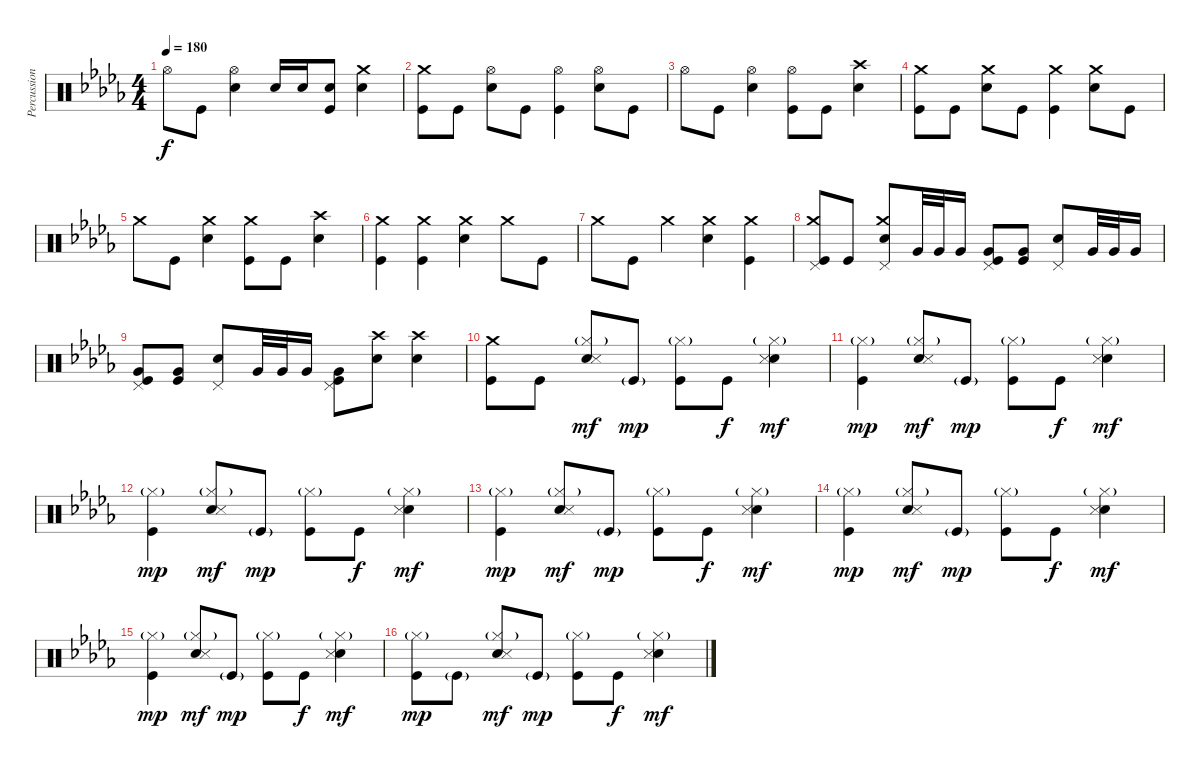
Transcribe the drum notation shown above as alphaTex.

\track ("Percussion" "Percussion") {instrument percussion}
\staff {score}
\articulation defaults
\ts (4 4)
\tempo 180
\clef neutral
\ks db "Hi-Hat (open)".8{dy f} "Kick (hit)".8
("Hi-Hat (open)" "Electric Snare (hit)").4 "Electric Snare (hit)".16 "Electric Snare (hit)".16 ("Electric Snare (hit)" "Kick (hit)").8 ("Crash medium (hit)" "Electric Snare (hit)").4 |
("Crash medium (hit)" "Kick (hit)").8 "Kick (hit)".8 ("Hi-Hat (open)" "Electric Snare (hit)").8 "Kick (hit)".8 ("Hi-Hat (open)" "Kick (hit)").4 ("Hi-Hat (open)" "Electric Snare (hit)").8 "Kick (hit)".8 |
"Hi-Hat (open)".8 "Kick (hit)".8 ("Hi-Hat (open)" "Electric Snare (hit)").4 ("Hi-Hat (open)" "Kick (hit)").8 "Kick (hit)".8 ("Crash high (hit)" "Electric Snare (hit)").4 |
("Crash medium (hit)" "Kick (hit)").8 "Kick (hit)".8 ("Crash medium (hit)" "Electric Snare (hit)").8 "Kick (hit)".8 ("Crash medium (hit)" "Kick (hit)").4 ("Crash medium (hit)" "Electric Snare (hit)").8 "Kick (hit)".8 |
"Crash medium (hit)".8 "Kick (hit)".8 ("Crash medium (hit)" "Electric Snare (hit)").4 ("Crash medium (hit)" "Kick (hit)").8 "Kick (hit)".8 ("Crash high (hit)" "Electric Snare (hit)").4 |
("Crash medium (hit)" "Kick (hit)").4 ("Crash medium (hit)" "Kick (hit)").4 ("Crash medium (hit)" "Electric Snare (hit)").4 "Crash medium (hit)".8 "Kick (hit)".8 |
"Crash medium (hit)".8 "Kick (hit)".8 "Crash medium (hit)".4 ("Crash medium (hit)" "Electric Snare (hit)").4 ("Crash medium (hit)" "Kick (hit)").4 |
("Crash medium (hit)" "Pedal Hi-Hat (hit)" "Kick (hit)").8 "Kick (hit)".8 ("Crash medium (hit)" "Electric Snare (hit)" "Pedal Hi-Hat (hit)").8 "Very Low Tom (hit)".32 "Very Low Tom (hit)".32 "Very Low Tom (hit)".16 ("Very Low Tom (hit)" "Pedal Hi-Hat (hit)" "Kick (hit)").8 ("Very Low Tom (hit)" "Kick (hit)").8 ("Electric Snare (hit)" "Pedal Hi-Hat (hit)").8 "Very Low Tom (hit)".32 "Very Low Tom (hit)".32 "Very Low Tom (hit)".16 |
("Very Low Tom (hit)" "Pedal Hi-Hat (hit)" "Kick (hit)").8 ("Very Low Tom (hit)" "Kick (hit)").8 ("Electric Snare (hit)" "Pedal Hi-Hat (hit)").8 "Very Low Tom (hit)".32 "Very Low Tom (hit)".32 "Very Low Tom (hit)".16 ("Very Low Tom (hit)" "Pedal Hi-Hat (hit)" "Kick (hit)").8 ("Crash high (hit)" "Electric Snare (hit)").8 ("Crash high (hit)" "Electric Snare (hit)").4 |
("Crash medium (hit)" "Kick (hit)").8 "Kick (hit)".8 ("Hi-Hat (closed)"{g} "Electric Snare (hit)" "Snare (side stick) 3").8{dy mf} "Kick (hit)"{g}.8{dy mp} ("Hi-Hat (closed)"{g} "Kick (hit)").8 "Kick (hit)".8{dy f} ("Hi-Hat (closed)"{g} "Electric Snare (hit)" "Snare (side stick) 3").4{dy mf} |
("Hi-Hat (closed)"{g} "Kick (hit)").4{dy mp} ("Hi-Hat (closed)"{g} "Electric Snare (hit)" "Snare (side stick) 3").8{dy mf} "Kick (hit)"{g}.8{dy mp} ("Hi-Hat (closed)"{g} "Kick (hit)").8 "Kick (hit)".8{dy f} ("Hi-Hat (closed)"{g} "Electric Snare (hit)" "Snare (side stick) 3").4{dy mf} |
("Hi-Hat (closed)"{g} "Kick (hit)").4{dy mp} ("Hi-Hat (closed)"{g} "Electric Snare (hit)" "Snare (side stick) 3").8{dy mf} "Kick (hit)"{g}.8{dy mp} ("Hi-Hat (closed)"{g} "Kick (hit)").8 "Kick (hit)".8{dy f} ("Hi-Hat (closed)"{g} "Electric Snare (hit)" "Snare (side stick) 3").4{dy mf} |
("Hi-Hat (closed)"{g} "Kick (hit)").4{dy mp} ("Hi-Hat (closed)"{g} "Electric Snare (hit)" "Snare (side stick) 3").8{dy mf} "Kick (hit)"{g}.8{dy mp} ("Hi-Hat (closed)"{g} "Kick (hit)").8 "Kick (hit)".8{dy f} ("Hi-Hat (closed)"{g} "Electric Snare (hit)" "Snare (side stick) 3").4{dy mf} |
("Hi-Hat (closed)"{g} "Kick (hit)").4{dy mp} ("Hi-Hat (closed)"{g} "Electric Snare (hit)" "Snare (side stick) 3").8{dy mf} "Kick (hit)"{g}.8{dy mp} ("Hi-Hat (closed)"{g} "Kick (hit)").8 "Kick (hit)".8{dy f} ("Hi-Hat (closed)"{g} "Electric Snare (hit)" "Snare (side stick) 3").4{dy mf} |
("Hi-Hat (closed)"{g} "Kick (hit)").4{dy mp} ("Hi-Hat (closed)"{g} "Electric Snare (hit)" "Snare (side stick) 3").8{dy mf} "Kick (hit)"{g}.8{dy mp} ("Hi-Hat (closed)"{g} "Kick (hit)").8 "Kick (hit)".8{dy f} ("Hi-Hat (closed)"{g} "Electric Snare (hit)" "Snare (side stick) 3").4{dy mf} |
("Hi-Hat (closed)"{g} "Kick (hit)").8{dy mp} "Kick (hit)"{g}.8 ("Hi-Hat (closed)"{g} "Electric Snare (hit)" "Snare (side stick) 3").8{dy mf} "Kick (hit)"{g}.8{dy mp} ("Hi-Hat (closed)"{g} "Kick (hit)").8 "Kick (hit)".8{dy f} ("Hi-Hat (closed)"{g} "Electric Snare (hit)" "Snare (side stick) 3").4{dy mf}
